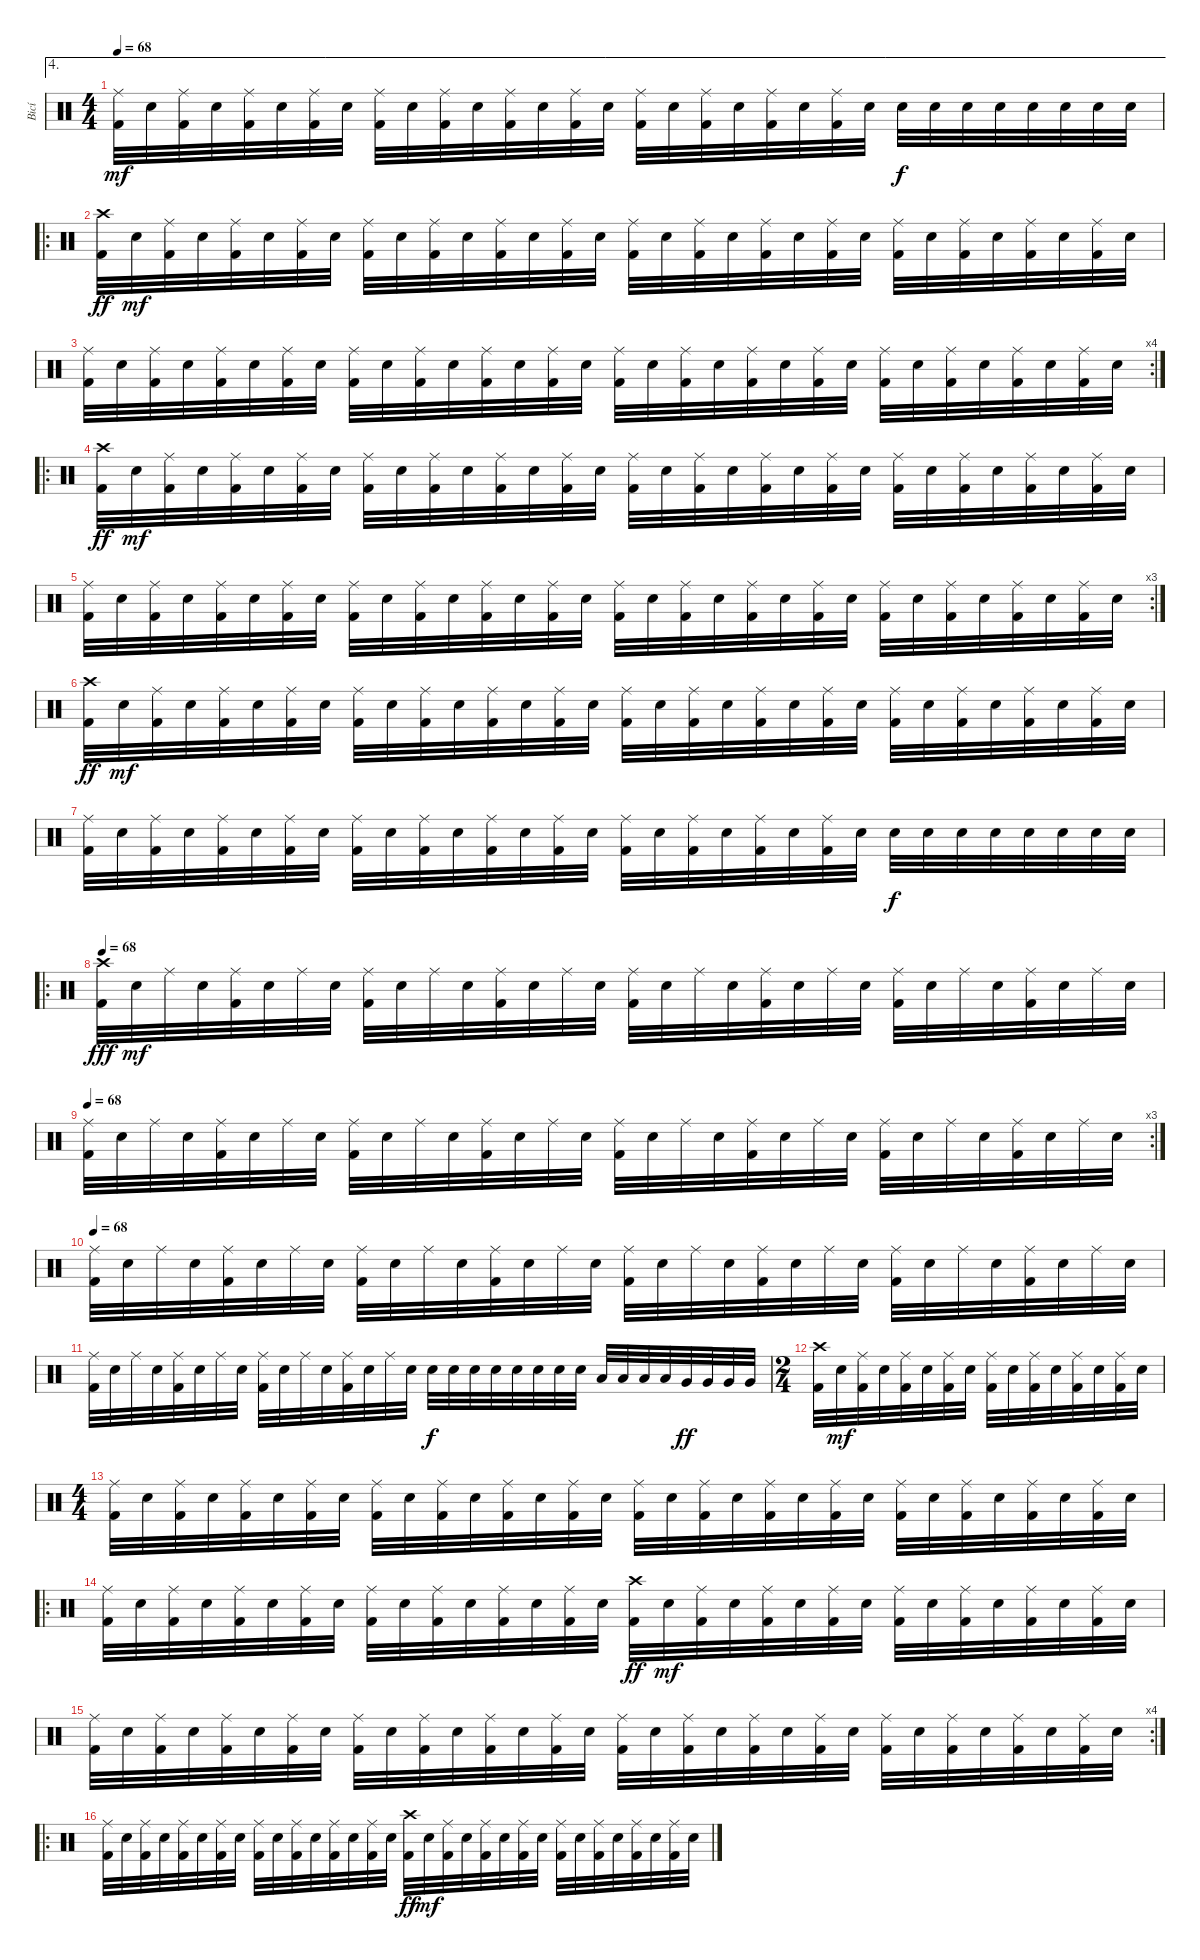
\track ("Bicí" "Bicí") {instrument percussion}
\staff {score}
\articulation defaults
\ae 4
\ts (4 4)
\tempo 68
\clef neutral
\ks c
("Kick (hit) 2" "Ride (middle)").32{dy mf} "Electric Snare (hit)".32 ("Kick (hit) 2" "Ride (middle)").32 "Electric Snare (hit)".32 ("Kick (hit) 2" "Ride (middle)").32 "Electric Snare (hit)".32 ("Kick (hit) 2" "Ride (middle)").32 "Electric Snare (hit)".32 ("Kick (hit) 2" "Ride (middle)").32 "Electric Snare (hit)".32 ("Kick (hit) 2" "Ride (middle)").32 "Electric Snare (hit)".32 ("Kick (hit) 2" "Ride (middle)").32 "Electric Snare (hit)".32 ("Kick (hit) 2" "Ride (middle)").32 "Electric Snare (hit)".32 ("Kick (hit) 2" "Ride (middle)").32 "Electric Snare (hit)".32 ("Kick (hit) 2" "Ride (middle)").32 "Electric Snare (hit)".32 ("Kick (hit) 2" "Ride (middle)").32 "Electric Snare (hit)".32 ("Kick (hit) 2" "Ride (middle)").32 "Electric Snare (hit)".32 "Electric Snare (hit)".32{dy f} "Electric Snare (hit)".32 "Electric Snare (hit)".32 "Electric Snare (hit)".32 "Electric Snare (hit)".32 "Electric Snare (hit)".32 "Electric Snare (hit)".32 "Electric Snare (hit)".32 |
\ro
("Kick (hit) 2" "Crash high (hit)").32{dy ff} "Electric Snare (hit)".32{dy mf} ("Kick (hit) 2" "Ride (middle)").32 "Electric Snare (hit)".32 ("Kick (hit) 2" "Ride (middle)").32 "Electric Snare (hit)".32 ("Kick (hit) 2" "Ride (middle)").32 "Electric Snare (hit)".32 ("Kick (hit) 2" "Ride (middle)").32 "Electric Snare (hit)".32 ("Kick (hit) 2" "Ride (middle)").32 "Electric Snare (hit)".32 ("Kick (hit) 2" "Ride (middle)").32 "Electric Snare (hit)".32 ("Kick (hit) 2" "Ride (middle)").32 "Electric Snare (hit)".32 ("Kick (hit) 2" "Ride (middle)").32 "Electric Snare (hit)".32 ("Kick (hit) 2" "Ride (middle)").32 "Electric Snare (hit)".32 ("Kick (hit) 2" "Ride (middle)").32 "Electric Snare (hit)".32 ("Kick (hit) 2" "Ride (middle)").32 "Electric Snare (hit)".32 ("Kick (hit) 2" "Ride (middle)").32 "Electric Snare (hit)".32 ("Kick (hit) 2" "Ride (middle)").32 "Electric Snare (hit)".32 ("Kick (hit) 2" "Ride (middle)").32 "Electric Snare (hit)".32 ("Kick (hit) 2" "Ride (middle)").32 "Electric Snare (hit)".32 |
\rc 4
("Kick (hit) 2" "Ride (middle)").32 "Electric Snare (hit)".32 ("Kick (hit) 2" "Ride (middle)").32 "Electric Snare (hit)".32 ("Kick (hit) 2" "Ride (middle)").32 "Electric Snare (hit)".32 ("Kick (hit) 2" "Ride (middle)").32 "Electric Snare (hit)".32 ("Kick (hit) 2" "Ride (middle)").32 "Electric Snare (hit)".32 ("Kick (hit) 2" "Ride (middle)").32 "Electric Snare (hit)".32 ("Kick (hit) 2" "Ride (middle)").32 "Electric Snare (hit)".32 ("Kick (hit) 2" "Ride (middle)").32 "Electric Snare (hit)".32 ("Kick (hit) 2" "Ride (middle)").32 "Electric Snare (hit)".32 ("Kick (hit) 2" "Ride (middle)").32 "Electric Snare (hit)".32 ("Kick (hit) 2" "Ride (middle)").32 "Electric Snare (hit)".32 ("Kick (hit) 2" "Ride (middle)").32 "Electric Snare (hit)".32 ("Kick (hit) 2" "Ride (middle)").32 "Electric Snare (hit)".32 ("Kick (hit) 2" "Ride (middle)").32 "Electric Snare (hit)".32 ("Kick (hit) 2" "Ride (middle)").32 "Electric Snare (hit)".32 ("Kick (hit) 2" "Ride (middle)").32 "Electric Snare (hit)".32 |
\ro
("Kick (hit) 2" "Crash high (hit)").32{dy ff} "Electric Snare (hit)".32{dy mf} ("Kick (hit) 2" "Ride (middle)").32 "Electric Snare (hit)".32 ("Kick (hit) 2" "Ride (middle)").32 "Electric Snare (hit)".32 ("Kick (hit) 2" "Ride (middle)").32 "Electric Snare (hit)".32 ("Kick (hit) 2" "Ride (middle)").32 "Electric Snare (hit)".32 ("Kick (hit) 2" "Ride (middle)").32 "Electric Snare (hit)".32 ("Kick (hit) 2" "Ride (middle)").32 "Electric Snare (hit)".32 ("Kick (hit) 2" "Ride (middle)").32 "Electric Snare (hit)".32 ("Kick (hit) 2" "Ride (middle)").32 "Electric Snare (hit)".32 ("Kick (hit) 2" "Ride (middle)").32 "Electric Snare (hit)".32 ("Kick (hit) 2" "Ride (middle)").32 "Electric Snare (hit)".32 ("Kick (hit) 2" "Ride (middle)").32 "Electric Snare (hit)".32 ("Kick (hit) 2" "Ride (middle)").32 "Electric Snare (hit)".32 ("Kick (hit) 2" "Ride (middle)").32 "Electric Snare (hit)".32 ("Kick (hit) 2" "Ride (middle)").32 "Electric Snare (hit)".32 ("Kick (hit) 2" "Ride (middle)").32 "Electric Snare (hit)".32 |
\rc 3
("Kick (hit) 2" "Ride (middle)").32 "Electric Snare (hit)".32 ("Kick (hit) 2" "Ride (middle)").32 "Electric Snare (hit)".32 ("Kick (hit) 2" "Ride (middle)").32 "Electric Snare (hit)".32 ("Kick (hit) 2" "Ride (middle)").32 "Electric Snare (hit)".32 ("Kick (hit) 2" "Ride (middle)").32 "Electric Snare (hit)".32 ("Kick (hit) 2" "Ride (middle)").32 "Electric Snare (hit)".32 ("Kick (hit) 2" "Ride (middle)").32 "Electric Snare (hit)".32 ("Kick (hit) 2" "Ride (middle)").32 "Electric Snare (hit)".32 ("Kick (hit) 2" "Ride (middle)").32 "Electric Snare (hit)".32 ("Kick (hit) 2" "Ride (middle)").32 "Electric Snare (hit)".32 ("Kick (hit) 2" "Ride (middle)").32 "Electric Snare (hit)".32 ("Kick (hit) 2" "Ride (middle)").32 "Electric Snare (hit)".32 ("Kick (hit) 2" "Ride (middle)").32 "Electric Snare (hit)".32 ("Kick (hit) 2" "Ride (middle)").32 "Electric Snare (hit)".32 ("Kick (hit) 2" "Ride (middle)").32 "Electric Snare (hit)".32 ("Kick (hit) 2" "Ride (middle)").32 "Electric Snare (hit)".32 |
("Kick (hit) 2" "Crash high (hit)").32{dy ff} "Electric Snare (hit)".32{dy mf} ("Kick (hit) 2" "Ride (middle)").32 "Electric Snare (hit)".32 ("Kick (hit) 2" "Ride (middle)").32 "Electric Snare (hit)".32 ("Kick (hit) 2" "Ride (middle)").32 "Electric Snare (hit)".32 ("Kick (hit) 2" "Ride (middle)").32 "Electric Snare (hit)".32 ("Kick (hit) 2" "Ride (middle)").32 "Electric Snare (hit)".32 ("Kick (hit) 2" "Ride (middle)").32 "Electric Snare (hit)".32 ("Kick (hit) 2" "Ride (middle)").32 "Electric Snare (hit)".32 ("Kick (hit) 2" "Ride (middle)").32 "Electric Snare (hit)".32 ("Kick (hit) 2" "Ride (middle)").32 "Electric Snare (hit)".32 ("Kick (hit) 2" "Ride (middle)").32 "Electric Snare (hit)".32 ("Kick (hit) 2" "Ride (middle)").32 "Electric Snare (hit)".32 ("Kick (hit) 2" "Ride (middle)").32 "Electric Snare (hit)".32 ("Kick (hit) 2" "Ride (middle)").32 "Electric Snare (hit)".32 ("Kick (hit) 2" "Ride (middle)").32 "Electric Snare (hit)".32 ("Kick (hit) 2" "Ride (middle)").32 "Electric Snare (hit)".32 |
("Kick (hit) 2" "Ride (middle)").32 "Electric Snare (hit)".32 ("Kick (hit) 2" "Ride (middle)").32 "Electric Snare (hit)".32 ("Kick (hit) 2" "Ride (middle)").32 "Electric Snare (hit)".32 ("Kick (hit) 2" "Ride (middle)").32 "Electric Snare (hit)".32 ("Kick (hit) 2" "Ride (middle)").32 "Electric Snare (hit)".32 ("Kick (hit) 2" "Ride (middle)").32 "Electric Snare (hit)".32 ("Kick (hit) 2" "Ride (middle)").32 "Electric Snare (hit)".32 ("Kick (hit) 2" "Ride (middle)").32 "Electric Snare (hit)".32 ("Kick (hit) 2" "Ride (middle)").32 "Electric Snare (hit)".32 ("Kick (hit) 2" "Ride (middle)").32 "Electric Snare (hit)".32 ("Kick (hit) 2" "Ride (middle)").32 "Electric Snare (hit)".32 ("Kick (hit) 2" "Ride (middle)").32 "Electric Snare (hit)".32 "Electric Snare (hit)".32{dy f} "Electric Snare (hit)".32 "Electric Snare (hit)".32 "Electric Snare (hit)".32 "Electric Snare (hit)".32 "Electric Snare (hit)".32 "Electric Snare (hit)".32 "Electric Snare (hit)".32 |
\ro
\tempo 68
("Kick (hit) 2" "Crash high (hit)").32{dy fff} "Electric Snare (hit)".32{dy mf} "Ride (middle)".32 "Electric Snare (hit)".32 ("Kick (hit) 2" "Ride (middle)").32 "Electric Snare (hit)".32 "Ride (middle)".32 "Electric Snare (hit)".32 ("Kick (hit) 2" "Ride (middle)").32 "Electric Snare (hit)".32 "Ride (middle)".32 "Electric Snare (hit)".32 ("Kick (hit) 2" "Ride (middle)").32 "Electric Snare (hit)".32 "Ride (middle)".32 "Electric Snare (hit)".32 ("Kick (hit) 2" "Ride (middle)").32 "Electric Snare (hit)".32 "Ride (middle)".32 "Electric Snare (hit)".32 ("Kick (hit) 2" "Ride (middle)").32 "Electric Snare (hit)".32 "Ride (middle)".32 "Electric Snare (hit)".32 ("Kick (hit) 2" "Ride (middle)").32 "Electric Snare (hit)".32 "Ride (middle)".32 "Electric Snare (hit)".32 ("Kick (hit) 2" "Ride (middle)").32 "Electric Snare (hit)".32 "Ride (middle)".32 "Electric Snare (hit)".32 |
\rc 3
\tempo 68
("Kick (hit) 2" "Ride (middle)").32 "Electric Snare (hit)".32 "Ride (middle)".32 "Electric Snare (hit)".32 ("Kick (hit) 2" "Ride (middle)").32 "Electric Snare (hit)".32 "Ride (middle)".32 "Electric Snare (hit)".32 ("Kick (hit) 2" "Ride (middle)").32 "Electric Snare (hit)".32 "Ride (middle)".32 "Electric Snare (hit)".32 ("Kick (hit) 2" "Ride (middle)").32 "Electric Snare (hit)".32 "Ride (middle)".32 "Electric Snare (hit)".32 ("Kick (hit) 2" "Ride (middle)").32 "Electric Snare (hit)".32 "Ride (middle)".32 "Electric Snare (hit)".32 ("Kick (hit) 2" "Ride (middle)").32 "Electric Snare (hit)".32 "Ride (middle)".32 "Electric Snare (hit)".32 ("Kick (hit) 2" "Ride (middle)").32 "Electric Snare (hit)".32 "Ride (middle)".32 "Electric Snare (hit)".32 ("Kick (hit) 2" "Ride (middle)").32 "Electric Snare (hit)".32 "Ride (middle)".32 "Electric Snare (hit)".32 |
\tempo 68
("Kick (hit) 2" "Ride (middle)").32 "Electric Snare (hit)".32 "Ride (middle)".32 "Electric Snare (hit)".32 ("Kick (hit) 2" "Ride (middle)").32 "Electric Snare (hit)".32 "Ride (middle)".32 "Electric Snare (hit)".32 ("Kick (hit) 2" "Ride (middle)").32 "Electric Snare (hit)".32 "Ride (middle)".32 "Electric Snare (hit)".32 ("Kick (hit) 2" "Ride (middle)").32 "Electric Snare (hit)".32 "Ride (middle)".32 "Electric Snare (hit)".32 ("Kick (hit) 2" "Ride (middle)").32 "Electric Snare (hit)".32 "Ride (middle)".32 "Electric Snare (hit)".32 ("Kick (hit) 2" "Ride (middle)").32 "Electric Snare (hit)".32 "Ride (middle)".32 "Electric Snare (hit)".32 ("Kick (hit) 2" "Ride (middle)").32 "Electric Snare (hit)".32 "Ride (middle)".32 "Electric Snare (hit)".32 ("Kick (hit) 2" "Ride (middle)").32 "Electric Snare (hit)".32 "Ride (middle)".32 "Electric Snare (hit)".32 |
("Kick (hit) 2" "Ride (middle)").32 "Electric Snare (hit)".32 "Ride (middle)".32 "Electric Snare (hit)".32 ("Kick (hit) 2" "Ride (middle)").32 "Electric Snare (hit)".32 "Ride (middle)".32 "Electric Snare (hit)".32 ("Kick (hit) 2" "Ride (middle)").32 "Electric Snare (hit)".32 "Ride (middle)".32 "Electric Snare (hit)".32 ("Kick (hit) 2" "Ride (middle)").32 "Electric Snare (hit)".32 "Ride (middle)".32 "Electric Snare (hit)".32 "Electric Snare (hit)".32{dy f} "Electric Snare (hit)".32 "Electric Snare (hit)".32 "Electric Snare (hit)".32 "Electric Snare (hit)".32 "Electric Snare (hit)".32 "Electric Snare (hit)".32 "Electric Snare (hit)".32 "Low Tom (hit)".32 "Low Tom (hit)".32 "Low Tom (hit)".32 "Low Tom (hit)".32 "Very Low Tom (hit)".32{dy ff} "Very Low Tom (hit)".32 "Very Low Tom (hit)".32 "Very Low Tom (hit)".32 |
\ts (2 4)
("Kick (hit) 2" "Crash high (hit)").32 "Electric Snare (hit)".32{dy mf} ("Kick (hit) 2" "Ride (middle)").32 "Electric Snare (hit)".32 ("Kick (hit) 2" "Ride (middle)").32 "Electric Snare (hit)".32 ("Kick (hit) 2" "Ride (middle)").32 "Electric Snare (hit)".32 ("Kick (hit) 2" "Ride (middle)").32 "Electric Snare (hit)".32 ("Kick (hit) 2" "Ride (middle)").32 "Electric Snare (hit)".32 ("Kick (hit) 2" "Ride (middle)").32 "Electric Snare (hit)".32 ("Kick (hit) 2" "Ride (middle)").32 "Electric Snare (hit)".32 |
\ts (4 4)
("Kick (hit) 2" "Ride (middle)").32 "Electric Snare (hit)".32 ("Kick (hit) 2" "Ride (middle)").32 "Electric Snare (hit)".32 ("Kick (hit) 2" "Ride (middle)").32 "Electric Snare (hit)".32 ("Kick (hit) 2" "Ride (middle)").32 "Electric Snare (hit)".32 ("Kick (hit) 2" "Ride (middle)").32 "Electric Snare (hit)".32 ("Kick (hit) 2" "Ride (middle)").32 "Electric Snare (hit)".32 ("Kick (hit) 2" "Ride (middle)").32 "Electric Snare (hit)".32 ("Kick (hit) 2" "Ride (middle)").32 "Electric Snare (hit)".32 ("Kick (hit) 2" "Ride (middle)").32 "Electric Snare (hit)".32 ("Kick (hit) 2" "Ride (middle)").32 "Electric Snare (hit)".32 ("Kick (hit) 2" "Ride (middle)").32 "Electric Snare (hit)".32 ("Kick (hit) 2" "Ride (middle)").32 "Electric Snare (hit)".32 ("Kick (hit) 2" "Ride (middle)").32 "Electric Snare (hit)".32 ("Kick (hit) 2" "Ride (middle)").32 "Electric Snare (hit)".32 ("Kick (hit) 2" "Ride (middle)").32 "Electric Snare (hit)".32 ("Kick (hit) 2" "Ride (middle)").32 "Electric Snare (hit)".32 |
\ro
("Kick (hit) 2" "Ride (middle)").32 "Electric Snare (hit)".32 ("Kick (hit) 2" "Ride (middle)").32 "Electric Snare (hit)".32 ("Kick (hit) 2" "Ride (middle)").32 "Electric Snare (hit)".32 ("Kick (hit) 2" "Ride (middle)").32 "Electric Snare (hit)".32 ("Kick (hit) 2" "Ride (middle)").32 "Electric Snare (hit)".32 ("Kick (hit) 2" "Ride (middle)").32 "Electric Snare (hit)".32 ("Kick (hit) 2" "Ride (middle)").32 "Electric Snare (hit)".32 ("Kick (hit) 2" "Ride (middle)").32 "Electric Snare (hit)".32 ("Kick (hit) 2" "Crash high (hit)").32{dy ff} "Electric Snare (hit)".32{dy mf} ("Kick (hit) 2" "Ride (middle)").32 "Electric Snare (hit)".32 ("Kick (hit) 2" "Ride (middle)").32 "Electric Snare (hit)".32 ("Kick (hit) 2" "Ride (middle)").32 "Electric Snare (hit)".32 ("Kick (hit) 2" "Ride (middle)").32 "Electric Snare (hit)".32 ("Kick (hit) 2" "Ride (middle)").32 "Electric Snare (hit)".32 ("Kick (hit) 2" "Ride (middle)").32 "Electric Snare (hit)".32 ("Kick (hit) 2" "Ride (middle)").32 "Electric Snare (hit)".32 |
\rc 4
("Kick (hit) 2" "Ride (middle)").32 "Electric Snare (hit)".32 ("Kick (hit) 2" "Ride (middle)").32 "Electric Snare (hit)".32 ("Kick (hit) 2" "Ride (middle)").32 "Electric Snare (hit)".32 ("Kick (hit) 2" "Ride (middle)").32 "Electric Snare (hit)".32 ("Kick (hit) 2" "Ride (middle)").32 "Electric Snare (hit)".32 ("Kick (hit) 2" "Ride (middle)").32 "Electric Snare (hit)".32 ("Kick (hit) 2" "Ride (middle)").32 "Electric Snare (hit)".32 ("Kick (hit) 2" "Ride (middle)").32 "Electric Snare (hit)".32 ("Kick (hit) 2" "Ride (middle)").32 "Electric Snare (hit)".32 ("Kick (hit) 2" "Ride (middle)").32 "Electric Snare (hit)".32 ("Kick (hit) 2" "Ride (middle)").32 "Electric Snare (hit)".32 ("Kick (hit) 2" "Ride (middle)").32 "Electric Snare (hit)".32 ("Kick (hit) 2" "Ride (middle)").32 "Electric Snare (hit)".32 ("Kick (hit) 2" "Ride (middle)").32 "Electric Snare (hit)".32 ("Kick (hit) 2" "Ride (middle)").32 "Electric Snare (hit)".32 ("Kick (hit) 2" "Ride (middle)").32 "Electric Snare (hit)".32 |
\ro
("Kick (hit) 2" "Ride (middle)").32 "Electric Snare (hit)".32 ("Kick (hit) 2" "Ride (middle)").32 "Electric Snare (hit)".32 ("Kick (hit) 2" "Ride (middle)").32 "Electric Snare (hit)".32 ("Kick (hit) 2" "Ride (middle)").32 "Electric Snare (hit)".32 ("Kick (hit) 2" "Ride (middle)").32 "Electric Snare (hit)".32 ("Kick (hit) 2" "Ride (middle)").32 "Electric Snare (hit)".32 ("Kick (hit) 2" "Ride (middle)").32 "Electric Snare (hit)".32 ("Kick (hit) 2" "Ride (middle)").32 "Electric Snare (hit)".32 ("Kick (hit) 2" "Crash high (hit)").32{dy ff} "Electric Snare (hit)".32{dy mf} ("Kick (hit) 2" "Ride (middle)").32 "Electric Snare (hit)".32 ("Kick (hit) 2" "Ride (middle)").32 "Electric Snare (hit)".32 ("Kick (hit) 2" "Ride (middle)").32 "Electric Snare (hit)".32 ("Kick (hit) 2" "Ride (middle)").32 "Electric Snare (hit)".32 ("Kick (hit) 2" "Ride (middle)").32 "Electric Snare (hit)".32 ("Kick (hit) 2" "Ride (middle)").32 "Electric Snare (hit)".32 ("Kick (hit) 2" "Ride (middle)").32 "Electric Snare (hit)".32
